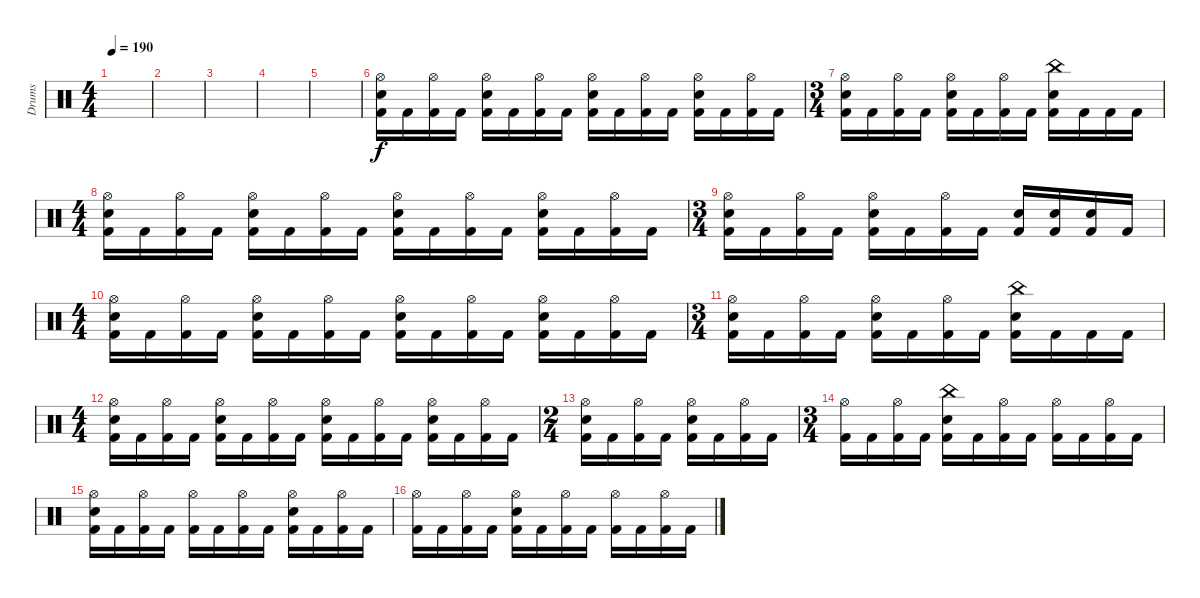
\track ("Drums" "Drums") {instrument percussion}
\staff {score}
\articulation defaults
\ts (4 4)
\tempo 190
\clef neutral
\ks c
|
|
|
|
|
("Hi-Hat (open)" "Electric Snare (hit)" "Kick (hit) 2").16 "Kick (hit) 2".16 ("Hi-Hat (open)" "Kick (hit) 2").16 "Kick (hit) 2".16 ("Hi-Hat (open)" "Electric Snare (hit)" "Kick (hit) 2").16 "Kick (hit) 2".16 ("Hi-Hat (open)" "Kick (hit) 2").16 "Kick (hit) 2".16 ("Hi-Hat (open)" "Electric Snare (hit)" "Kick (hit) 2").16 "Kick (hit) 2".16 ("Hi-Hat (open)" "Kick (hit) 2").16 "Kick (hit) 2".16 ("Hi-Hat (open)" "Electric Snare (hit)" "Kick (hit) 2").16 "Kick (hit) 2".16 ("Hi-Hat (open)" "Kick (hit) 2").16 "Kick (hit) 2".16 |
\ts (3 4)
("Hi-Hat (open)" "Electric Snare (hit)" "Kick (hit) 2").16 "Kick (hit) 2".16 ("Hi-Hat (open)" "Kick (hit) 2").16 "Kick (hit) 2".16 ("Hi-Hat (open)" "Electric Snare (hit)" "Kick (hit) 2").16 "Kick (hit) 2".16 ("Hi-Hat (open)" "Kick (hit) 2").16 "Kick (hit) 2".16 ("China (hit)" "Electric Snare (hit)" "Kick (hit) 2").16 "Kick (hit) 2".16 "Kick (hit) 2".16 "Kick (hit) 2".16 |
\ts (4 4)
("Hi-Hat (open)" "Electric Snare (hit)" "Kick (hit) 2").16 "Kick (hit) 2".16 ("Hi-Hat (open)" "Kick (hit) 2").16 "Kick (hit) 2".16 ("Hi-Hat (open)" "Electric Snare (hit)" "Kick (hit) 2").16 "Kick (hit) 2".16 ("Hi-Hat (open)" "Kick (hit) 2").16 "Kick (hit) 2".16 ("Hi-Hat (open)" "Electric Snare (hit)" "Kick (hit) 2").16 "Kick (hit) 2".16 ("Hi-Hat (open)" "Kick (hit) 2").16 "Kick (hit) 2".16 ("Hi-Hat (open)" "Electric Snare (hit)" "Kick (hit) 2").16 "Kick (hit) 2".16 ("Hi-Hat (open)" "Kick (hit) 2").16 "Kick (hit) 2".16 |
\ts (3 4)
("Hi-Hat (open)" "Electric Snare (hit)" "Kick (hit) 2").16 "Kick (hit) 2".16 ("Hi-Hat (open)" "Kick (hit) 2").16 "Kick (hit) 2".16 ("Hi-Hat (open)" "Electric Snare (hit)" "Kick (hit) 2").16 "Kick (hit) 2".16 ("Hi-Hat (open)" "Kick (hit) 2").16 "Kick (hit) 2".16 ("Electric Snare (hit)" "Kick (hit) 2").16 ("Electric Snare (hit)" "Kick (hit) 2").16 ("Electric Snare (hit)" "Kick (hit) 2").16 "Kick (hit) 2".16 |
\ts (4 4)
("Hi-Hat (open)" "Electric Snare (hit)" "Kick (hit) 2").16 "Kick (hit) 2".16 ("Hi-Hat (open)" "Kick (hit) 2").16 "Kick (hit) 2".16 ("Hi-Hat (open)" "Electric Snare (hit)" "Kick (hit) 2").16 "Kick (hit) 2".16 ("Hi-Hat (open)" "Kick (hit) 2").16 "Kick (hit) 2".16 ("Hi-Hat (open)" "Electric Snare (hit)" "Kick (hit) 2").16 "Kick (hit) 2".16 ("Hi-Hat (open)" "Kick (hit) 2").16 "Kick (hit) 2".16 ("Hi-Hat (open)" "Electric Snare (hit)" "Kick (hit) 2").16 "Kick (hit) 2".16 ("Hi-Hat (open)" "Kick (hit) 2").16 "Kick (hit) 2".16 |
\ts (3 4)
("Hi-Hat (open)" "Electric Snare (hit)" "Kick (hit) 2").16 "Kick (hit) 2".16 ("Hi-Hat (open)" "Kick (hit) 2").16 "Kick (hit) 2".16 ("Hi-Hat (open)" "Electric Snare (hit)" "Kick (hit) 2").16 "Kick (hit) 2".16 ("Hi-Hat (open)" "Kick (hit) 2").16 "Kick (hit) 2".16 ("China (hit)" "Electric Snare (hit)" "Kick (hit) 2").16 "Kick (hit) 2".16 "Kick (hit) 2".16 "Kick (hit) 2".16 |
\ts (4 4)
("Hi-Hat (open)" "Electric Snare (hit)" "Kick (hit) 2").16 "Kick (hit) 2".16 ("Hi-Hat (open)" "Kick (hit) 2").16 "Kick (hit) 2".16 ("Hi-Hat (open)" "Electric Snare (hit)" "Kick (hit) 2").16 "Kick (hit) 2".16 ("Hi-Hat (open)" "Kick (hit) 2").16 "Kick (hit) 2".16 ("Hi-Hat (open)" "Electric Snare (hit)" "Kick (hit) 2").16 "Kick (hit) 2".16 ("Hi-Hat (open)" "Kick (hit) 2").16 "Kick (hit) 2".16 ("Hi-Hat (open)" "Electric Snare (hit)" "Kick (hit) 2").16 "Kick (hit) 2".16 ("Hi-Hat (open)" "Kick (hit) 2").16 "Kick (hit) 2".16 |
\ts (2 4)
("Hi-Hat (open)" "Electric Snare (hit)" "Kick (hit) 2").16 "Kick (hit) 2".16 ("Hi-Hat (open)" "Kick (hit) 2").16 "Kick (hit) 2".16 ("Hi-Hat (open)" "Electric Snare (hit)" "Kick (hit) 2").16 "Kick (hit) 2".16 ("Hi-Hat (open)" "Kick (hit) 2").16 "Kick (hit) 2".16 |
\ts (3 4)
("Hi-Hat (open)" "Kick (hit) 2").16 "Kick (hit) 2".16 ("Hi-Hat (open)" "Kick (hit) 2").16 "Kick (hit) 2".16 ("China (hit)" "Electric Snare (hit)" "Kick (hit) 2").16 "Kick (hit) 2".16 ("Hi-Hat (open)" "Kick (hit) 2").16 "Kick (hit) 2".16 ("Hi-Hat (open)" "Kick (hit) 2").16 "Kick (hit) 2".16 ("Hi-Hat (open)" "Kick (hit) 2").16 "Kick (hit) 2".16 |
("Hi-Hat (open)" "Electric Snare (hit)" "Kick (hit) 2").16 "Kick (hit) 2".16 ("Hi-Hat (open)" "Kick (hit) 2").16 "Kick (hit) 2".16 ("Hi-Hat (open)" "Kick (hit) 2").16 "Kick (hit) 2".16 ("Hi-Hat (open)" "Kick (hit) 2").16 "Kick (hit) 2".16 ("Hi-Hat (open)" "Electric Snare (hit)" "Kick (hit) 2").16 "Kick (hit) 2".16 ("Hi-Hat (open)" "Kick (hit) 2").16 "Kick (hit) 2".16 |
("Hi-Hat (open)" "Kick (hit) 2").16 "Kick (hit) 2".16 ("Hi-Hat (open)" "Kick (hit) 2").16 "Kick (hit) 2".16 ("Hi-Hat (open)" "Electric Snare (hit)" "Kick (hit) 2").16 "Kick (hit) 2".16 ("Hi-Hat (open)" "Kick (hit) 2").16 "Kick (hit) 2".16 ("Hi-Hat (open)" "Kick (hit) 2").16 "Kick (hit) 2".16 ("Hi-Hat (open)" "Kick (hit) 2").16 "Kick (hit) 2".16
